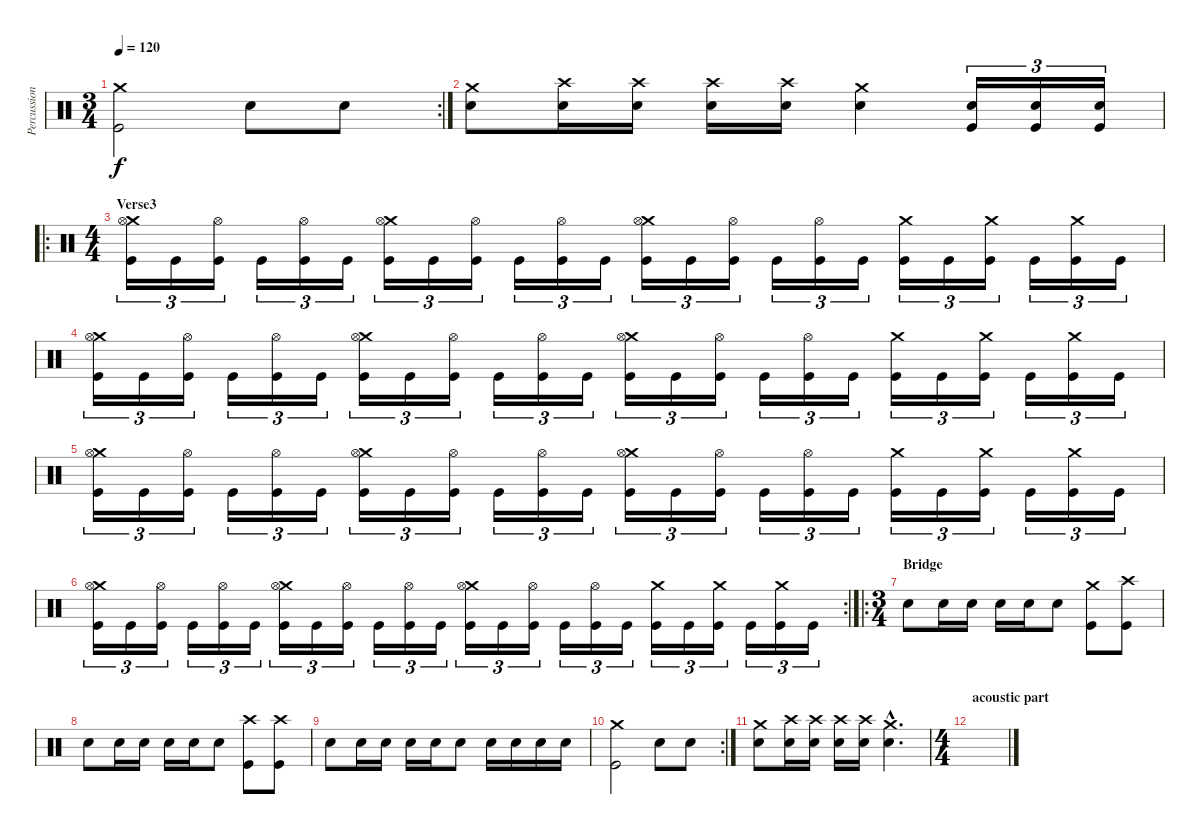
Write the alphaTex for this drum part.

\track ("Percussion" "Percussion") {instrument percussion}
\staff {score}
\articulation defaults
\rc 2
\ts (3 4)
\tempo 120
\clef neutral
\ks c
("Crash medium (hit)" "Kick (hit)").2{dy f} "Snare (hit) 2".8 "Snare (hit) 2".8 |
("Crash medium (hit)" "Snare (hit) 2").8 ("Crash high (hit)" "Snare (hit) 2").16 ("Crash high (hit)" "Snare (hit) 2").16 ("Crash high (hit)" "Snare (hit) 2").16 ("Crash high (hit)" "Snare (hit) 2").16 ("Crash medium (hit)" "Snare (hit) 2").4 ("Snare (hit) 2" "Kick (hit)").16{tu (3 2)} ("Snare (hit) 2" "Kick (hit)").16{tu (3 2)} ("Snare (hit) 2" "Kick (hit)").16{tu (3 2)} |
\ro
\ts (4 4)
\section ("" "Verse3")
("Crash medium (hit)" "Hi-Hat (open)" "Kick (hit)").16{tu (3 2)} "Kick (hit)".16{tu (3 2)} ("Hi-Hat (open)" "Kick (hit)").16{tu (3 2)} "Kick (hit)".16{tu (3 2)} ("Hi-Hat (open)" "Kick (hit)").16{tu (3 2)} "Kick (hit)".16{tu (3 2)} ("Crash medium (hit)" "Hi-Hat (open)" "Kick (hit)").16{tu (3 2)} "Kick (hit)".16{tu (3 2)} ("Hi-Hat (open)" "Kick (hit)").16{tu (3 2)} "Kick (hit)".16{tu (3 2)} ("Hi-Hat (open)" "Kick (hit)").16{tu (3 2)} "Kick (hit)".16{tu (3 2)} ("Crash medium (hit)" "Hi-Hat (open)" "Kick (hit)").16{tu (3 2)} "Kick (hit)".16{tu (3 2)} ("Hi-Hat (open)" "Kick (hit)").16{tu (3 2)} "Kick (hit)".16{tu (3 2)} ("Hi-Hat (open)" "Kick (hit)").16{tu (3 2)} "Kick (hit)".16{tu (3 2)} ("Crash medium (hit)" "Kick (hit)").16{tu (3 2)} "Kick (hit)".16{tu (3 2)} ("Crash medium (hit)" "Kick (hit)").16{tu (3 2)} "Kick (hit)".16{tu (3 2)} ("Crash medium (hit)" "Kick (hit)").16{tu (3 2)} "Kick (hit)".16{tu (3 2)} |
("Crash medium (hit)" "Hi-Hat (open)" "Kick (hit)").16{tu (3 2)} "Kick (hit)".16{tu (3 2)} ("Hi-Hat (open)" "Kick (hit)").16{tu (3 2)} "Kick (hit)".16{tu (3 2)} ("Hi-Hat (open)" "Kick (hit)").16{tu (3 2)} "Kick (hit)".16{tu (3 2)} ("Crash medium (hit)" "Hi-Hat (open)" "Kick (hit)").16{tu (3 2)} "Kick (hit)".16{tu (3 2)} ("Hi-Hat (open)" "Kick (hit)").16{tu (3 2)} "Kick (hit)".16{tu (3 2)} ("Hi-Hat (open)" "Kick (hit)").16{tu (3 2)} "Kick (hit)".16{tu (3 2)} ("Crash medium (hit)" "Hi-Hat (open)" "Kick (hit)").16{tu (3 2)} "Kick (hit)".16{tu (3 2)} ("Hi-Hat (open)" "Kick (hit)").16{tu (3 2)} "Kick (hit)".16{tu (3 2)} ("Hi-Hat (open)" "Kick (hit)").16{tu (3 2)} "Kick (hit)".16{tu (3 2)} ("Crash medium (hit)" "Kick (hit)").16{tu (3 2)} "Kick (hit)".16{tu (3 2)} ("Crash medium (hit)" "Kick (hit)").16{tu (3 2)} "Kick (hit)".16{tu (3 2)} ("Crash medium (hit)" "Kick (hit)").16{tu (3 2)} "Kick (hit)".16{tu (3 2)} |
("Crash medium (hit)" "Hi-Hat (open)" "Kick (hit)").16{tu (3 2)} "Kick (hit)".16{tu (3 2)} ("Hi-Hat (open)" "Kick (hit)").16{tu (3 2)} "Kick (hit)".16{tu (3 2)} ("Hi-Hat (open)" "Kick (hit)").16{tu (3 2)} "Kick (hit)".16{tu (3 2)} ("Crash medium (hit)" "Hi-Hat (open)" "Kick (hit)").16{tu (3 2)} "Kick (hit)".16{tu (3 2)} ("Hi-Hat (open)" "Kick (hit)").16{tu (3 2)} "Kick (hit)".16{tu (3 2)} ("Hi-Hat (open)" "Kick (hit)").16{tu (3 2)} "Kick (hit)".16{tu (3 2)} ("Crash medium (hit)" "Hi-Hat (open)" "Kick (hit)").16{tu (3 2)} "Kick (hit)".16{tu (3 2)} ("Hi-Hat (open)" "Kick (hit)").16{tu (3 2)} "Kick (hit)".16{tu (3 2)} ("Hi-Hat (open)" "Kick (hit)").16{tu (3 2)} "Kick (hit)".16{tu (3 2)} ("Crash medium (hit)" "Kick (hit)").16{tu (3 2)} "Kick (hit)".16{tu (3 2)} ("Crash medium (hit)" "Kick (hit)").16{tu (3 2)} "Kick (hit)".16{tu (3 2)} ("Crash medium (hit)" "Kick (hit)").16{tu (3 2)} "Kick (hit)".16{tu (3 2)} |
\rc 2
("Crash medium (hit)" "Hi-Hat (open)" "Kick (hit)").16{tu (3 2)} "Kick (hit)".16{tu (3 2)} ("Hi-Hat (open)" "Kick (hit)").16{tu (3 2)} "Kick (hit)".16{tu (3 2)} ("Hi-Hat (open)" "Kick (hit)").16{tu (3 2)} "Kick (hit)".16{tu (3 2)} ("Crash medium (hit)" "Hi-Hat (open)" "Kick (hit)").16{tu (3 2)} "Kick (hit)".16{tu (3 2)} ("Hi-Hat (open)" "Kick (hit)").16{tu (3 2)} "Kick (hit)".16{tu (3 2)} ("Hi-Hat (open)" "Kick (hit)").16{tu (3 2)} "Kick (hit)".16{tu (3 2)} ("Crash medium (hit)" "Hi-Hat (open)" "Kick (hit)").16{tu (3 2)} "Kick (hit)".16{tu (3 2)} ("Hi-Hat (open)" "Kick (hit)").16{tu (3 2)} "Kick (hit)".16{tu (3 2)} ("Hi-Hat (open)" "Kick (hit)").16{tu (3 2)} "Kick (hit)".16{tu (3 2)} ("Crash medium (hit)" "Kick (hit)").16{tu (3 2)} "Kick (hit)".16{tu (3 2)} ("Crash medium (hit)" "Kick (hit)").16{tu (3 2)} "Kick (hit)".16{tu (3 2)} ("Crash medium (hit)" "Kick (hit)").16{tu (3 2)} "Kick (hit)".16{tu (3 2)} |
\ro
\ts (3 4)
\section ("" "Bridge")
"Snare (hit) 2".8 "Snare (hit) 2".16 "Snare (hit) 2".16 "Snare (hit) 2".16 "Snare (hit) 2".16 "Snare (hit) 2".8 ("Crash medium (hit)" "Kick (hit)").8 ("Crash high (hit)" "Kick (hit)").8 |
"Snare (hit) 2".8 "Snare (hit) 2".16 "Snare (hit) 2".16 "Snare (hit) 2".16 "Snare (hit) 2".16 "Snare (hit) 2".8 ("Crash high (hit)" "Kick (hit)").8 ("Crash high (hit)" "Kick (hit)").8 |
"Snare (hit) 2".8 "Snare (hit) 2".16 "Snare (hit) 2".16 "Snare (hit) 2".16 "Snare (hit) 2".16 "Snare (hit) 2".8 "Snare (hit) 2".16 "Snare (hit) 2".16 "Snare (hit) 2".16 "Snare (hit) 2".16 |
\rc 2
("Crash medium (hit)" "Kick (hit)").2 "Snare (hit) 2".8 "Snare (hit) 2".8 |
("Crash medium (hit)" "Snare (hit) 2").8 ("Crash high (hit)" "Snare (hit) 2").16 ("Crash high (hit)" "Snare (hit) 2").16 ("Crash high (hit)" "Snare (hit) 2").16 ("Crash high (hit)" "Snare (hit) 2").16 ("Crash medium (hit)"{hac} "Snare (hit) 2"{hac}).4{d} |
\ts (4 4)
\section ("" "acoustic part ")
